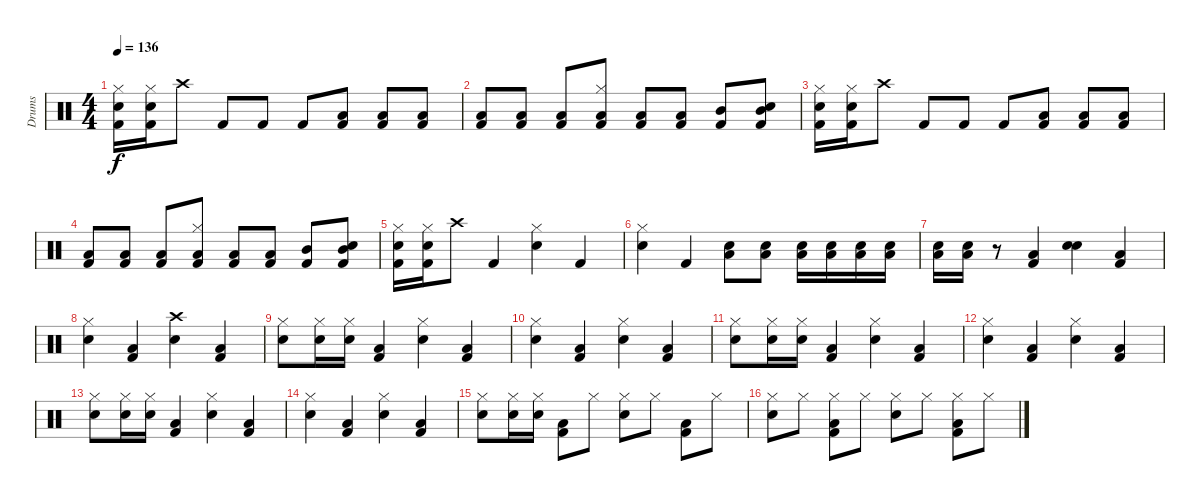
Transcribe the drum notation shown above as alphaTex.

\track ("Drums" "Drums") {instrument percussion}
\staff {score}
\articulation defaults
\ts (4 4)
\tempo 136
\clef neutral
\ks c
("Kick (hit) 2" "Hi-Hat (closed)" "Snare (hit) 2").16{dy f} ("Kick (hit) 2" "Hi-Hat (closed)" "Snare (hit) 2").16 "Crash high (hit)".8 "Kick (hit) 2".8 "Kick (hit) 2".8 "Kick (hit) 2".8 ("Kick (hit) 2" "Low Floor Tom (hit)").8 ("Kick (hit) 2" "Low Floor Tom (hit)").8 ("Kick (hit) 2" "Low Floor Tom (hit)").8 |
("Kick (hit) 2" "Low Floor Tom (hit)").8 ("Kick (hit) 2" "Low Floor Tom (hit)").8 ("Kick (hit) 2" "Low Floor Tom (hit)").8 ("Kick (hit) 2" "Low Tom (hit)" "Hi-Hat (closed)").8 ("Kick (hit) 2" "Low Tom (hit)").8 ("Kick (hit) 2" "Low Tom (hit)").8 ("Kick (hit) 2" "Mid Tom (hit)").8 ("Kick (hit) 2" "Mid Tom (hit)" "Snare (hit) 2").8 |
("Kick (hit) 2" "Hi-Hat (closed)" "Snare (hit) 2").16 ("Kick (hit) 2" "Hi-Hat (closed)" "Snare (hit) 2").16 "Crash high (hit)".8 "Kick (hit) 2".8 "Kick (hit) 2".8 "Kick (hit) 2".8 ("Kick (hit) 2" "Low Floor Tom (hit)").8 ("Kick (hit) 2" "Low Floor Tom (hit)").8 ("Kick (hit) 2" "Low Floor Tom (hit)").8 |
("Kick (hit) 2" "Low Floor Tom (hit)").8 ("Kick (hit) 2" "Low Floor Tom (hit)").8 ("Kick (hit) 2" "Low Floor Tom (hit)").8 ("Kick (hit) 2" "Low Tom (hit)" "Hi-Hat (closed)").8 ("Kick (hit) 2" "Low Tom (hit)").8 ("Kick (hit) 2" "Low Tom (hit)").8 ("Kick (hit) 2" "Mid Tom (hit)").8 ("Kick (hit) 2" "Mid Tom (hit)" "Snare (hit) 2").8 |
("Kick (hit) 2" "Hi-Hat (closed)" "Snare (hit) 2").16 ("Kick (hit) 2" "Hi-Hat (closed)" "Snare (hit) 2").16 "Crash high (hit)".8 "Kick (hit) 2".4 ("Hi-Hat (closed)" "Snare (hit) 2").4 "Kick (hit) 2".4 |
("Hi-Hat (closed)" "Snare (hit) 2").4 "Kick (hit) 2".4 ("Low Floor Tom (hit)" "Snare (hit) 2").8{volume 5} ("Low Floor Tom (hit)" "Snare (hit) 2").8 ("Low Floor Tom (hit)" "Snare (hit) 2").16 ("Low Floor Tom (hit)" "Snare (hit) 2").16 ("Low Floor Tom (hit)" "Snare (hit) 2").16 ("Low Floor Tom (hit)" "Snare (hit) 2").16 |
("Low Floor Tom (hit)" "Snare (hit) 2").16 ("Low Floor Tom (hit)" "Snare (hit) 2").16 r.8{volume 13} ("Kick (hit) 2" "Low Floor Tom (hit)").4 ("Electric Snare (hit)" "Snare (hit) 2").4 ("Kick (hit) 2" "Low Floor Tom (hit)").4 |
("Hi-Hat (closed)" "Snare (hit) 2").4 ("Kick (hit) 2" "Low Floor Tom (hit)").4 ("Snare (hit) 2" "Crash high (hit)").4 ("Kick (hit) 2" "Low Floor Tom (hit)").4 |
("Hi-Hat (closed)" "Snare (hit) 2").8 ("Hi-Hat (closed)" "Snare (hit) 2").16 ("Hi-Hat (closed)" "Snare (hit) 2").16 ("Kick (hit) 2" "Low Floor Tom (hit)").4 ("Hi-Hat (closed)" "Snare (hit) 2").4 ("Kick (hit) 2" "Low Floor Tom (hit)").4 |
("Hi-Hat (closed)" "Snare (hit) 2").4 ("Kick (hit) 2" "Low Floor Tom (hit)").4 ("Hi-Hat (closed)" "Snare (hit) 2").4 ("Kick (hit) 2" "Low Floor Tom (hit)").4 |
("Hi-Hat (closed)" "Snare (hit) 2").8 ("Hi-Hat (closed)" "Snare (hit) 2").16 ("Hi-Hat (closed)" "Snare (hit) 2").16 ("Kick (hit) 2" "Low Floor Tom (hit)").4 ("Hi-Hat (closed)" "Snare (hit) 2").4 ("Kick (hit) 2" "Low Floor Tom (hit)").4 |
("Hi-Hat (closed)" "Snare (hit) 2").4 ("Kick (hit) 2" "Low Floor Tom (hit)").4 ("Hi-Hat (closed)" "Snare (hit) 2").4 ("Kick (hit) 2" "Low Floor Tom (hit)").4 |
("Hi-Hat (closed)" "Snare (hit) 2").8 ("Hi-Hat (closed)" "Snare (hit) 2").16 ("Hi-Hat (closed)" "Snare (hit) 2").16 ("Kick (hit) 2" "Low Floor Tom (hit)").4 ("Hi-Hat (closed)" "Snare (hit) 2").4 ("Kick (hit) 2" "Low Floor Tom (hit)").4 |
("Hi-Hat (closed)" "Snare (hit) 2").4 ("Kick (hit) 2" "Low Floor Tom (hit)").4 ("Hi-Hat (closed)" "Snare (hit) 2").4 ("Kick (hit) 2" "Low Floor Tom (hit)").4 |
("Hi-Hat (closed)" "Snare (hit) 2").8 ("Hi-Hat (closed)" "Snare (hit) 2").16 ("Hi-Hat (closed)" "Snare (hit) 2").16 ("Kick (hit) 2" "Low Floor Tom (hit)").8 "Hi-Hat (closed)".8 ("Hi-Hat (closed)" "Snare (hit) 2").8 "Hi-Hat (closed)".8 ("Kick (hit) 2" "Low Floor Tom (hit)").8 "Hi-Hat (closed)".8 |
("Hi-Hat (closed)" "Snare (hit) 2").8 "Hi-Hat (closed)".8 ("Kick (hit) 2" "Low Floor Tom (hit)" "Hi-Hat (closed)").8 "Hi-Hat (closed)".8 ("Hi-Hat (closed)" "Snare (hit) 2").8 "Hi-Hat (closed)".8 ("Kick (hit) 2" "Low Floor Tom (hit)" "Hi-Hat (closed)").8 "Hi-Hat (closed)".8
